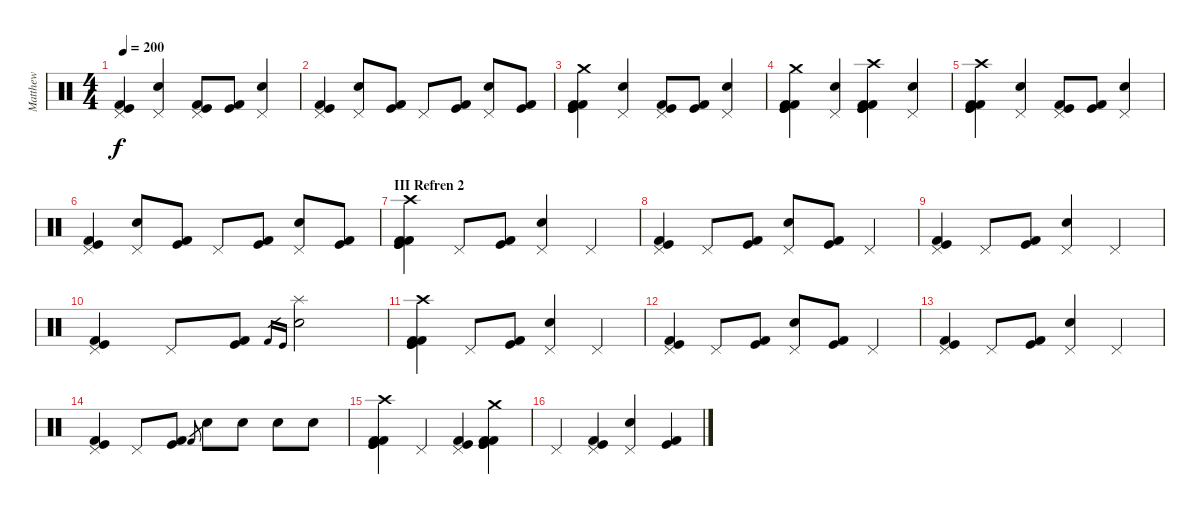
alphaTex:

\track ("Matthew" "Matthew") {instrument percussion}
\staff {score}
\articulation defaults
\ts (4 4)
\tempo 200
\clef neutral
\ks c
("Kick (hit)" "Kick (hit) 2" "Pedal Hi-Hat (hit)").4{dy f} ("Snare (hit) 2" "Pedal Hi-Hat (hit)").4 ("Kick (hit) 2" "Pedal Hi-Hat (hit)" "Kick (hit)").8 ("Kick (hit)" "Kick (hit) 2").8 ("Snare (hit) 2" "Pedal Hi-Hat (hit)").4 |
("Kick (hit) 2" "Kick (hit)" "Pedal Hi-Hat (hit)").4 ("Snare (hit) 2" "Pedal Hi-Hat (hit)").8 ("Kick (hit) 2" "Kick (hit)").8 "Pedal Hi-Hat (hit)".8 ("Kick (hit) 2" "Kick (hit)").8 ("Snare (hit) 2" "Pedal Hi-Hat (hit)").8 ("Kick (hit)" "Kick (hit) 2").8 |
("Kick (hit)" "Kick (hit) 2" "Kick (hit)" "Kick (hit) 2" "Crash medium (hit)").4 ("Snare (hit) 2" "Pedal Hi-Hat (hit)").4 ("Kick (hit) 2" "Pedal Hi-Hat (hit)" "Kick (hit)").8 ("Kick (hit)" "Kick (hit) 2").8 ("Snare (hit) 2" "Pedal Hi-Hat (hit)").4 |
("Kick (hit)" "Kick (hit) 2" "Kick (hit)" "Kick (hit) 2" "Crash medium (hit)").4 ("Snare (hit) 2" "Pedal Hi-Hat (hit)").4 ("Kick (hit) 2" "Crash high (hit)" "Kick (hit)" "Kick (hit) 2" "Kick (hit)").4 ("Snare (hit) 2" "Pedal Hi-Hat (hit)").4 |
("Kick (hit)" "Kick (hit) 2" "Kick (hit)" "Kick (hit) 2" "Crash high (hit)").4 ("Snare (hit) 2" "Pedal Hi-Hat (hit)").4 ("Kick (hit) 2" "Pedal Hi-Hat (hit)" "Kick (hit)").8 ("Kick (hit)" "Kick (hit) 2").8 ("Snare (hit) 2" "Pedal Hi-Hat (hit)").4 |
("Kick (hit) 2" "Kick (hit)" "Pedal Hi-Hat (hit)").4 ("Snare (hit) 2" "Pedal Hi-Hat (hit)").8 ("Kick (hit) 2" "Kick (hit)").8 "Pedal Hi-Hat (hit)".8 ("Kick (hit) 2" "Kick (hit)").8 ("Snare (hit) 2" "Pedal Hi-Hat (hit)").8 ("Kick (hit)" "Kick (hit) 2").8 |
\section ("" "III Refren 2")
("Kick (hit) 2" "Kick (hit)" "Kick (hit) 2" "Kick (hit)" "Crash high (hit)").4 "Pedal Hi-Hat (hit)".8 ("Kick (hit) 2" "Kick (hit)").8 ("Pedal Hi-Hat (hit)" "Snare (hit) 2").4 "Pedal Hi-Hat (hit)".4 |
("Kick (hit) 2" "Kick (hit)" "Pedal Hi-Hat (hit)").4 "Pedal Hi-Hat (hit)".8 ("Kick (hit) 2" "Kick (hit)").8 ("Pedal Hi-Hat (hit)" "Snare (hit) 2").8 ("Kick (hit) 2" "Kick (hit)").8 "Pedal Hi-Hat (hit)".4 |
("Kick (hit) 2" "Kick (hit)" "Pedal Hi-Hat (hit)").4 "Pedal Hi-Hat (hit)".8 ("Kick (hit) 2" "Kick (hit)").8 ("Pedal Hi-Hat (hit)" "Snare (hit) 2").4 "Pedal Hi-Hat (hit)".4 |
("Kick (hit) 2" "Kick (hit)" "Pedal Hi-Hat (hit)").4 "Pedal Hi-Hat (hit)".8 ("Kick (hit) 2" "Kick (hit)").8 "Kick (hit) 2".16{gr} "Kick (hit)".16{gr} ("Snare (hit) 2" "Splash (hit)").2 |
("Kick (hit) 2" "Kick (hit)" "Kick (hit) 2" "Kick (hit)" "Crash high (hit)").4 "Pedal Hi-Hat (hit)".8 ("Kick (hit) 2" "Kick (hit)").8 ("Pedal Hi-Hat (hit)" "Snare (hit) 2").4 "Pedal Hi-Hat (hit)".4 |
("Kick (hit) 2" "Kick (hit)" "Pedal Hi-Hat (hit)").4 "Pedal Hi-Hat (hit)".8 ("Kick (hit) 2" "Kick (hit)").8 ("Pedal Hi-Hat (hit)" "Snare (hit) 2").8 ("Kick (hit) 2" "Kick (hit)").8 "Pedal Hi-Hat (hit)".4 |
("Kick (hit) 2" "Kick (hit)" "Pedal Hi-Hat (hit)").4 "Pedal Hi-Hat (hit)".8 ("Kick (hit) 2" "Kick (hit)").8 ("Pedal Hi-Hat (hit)" "Snare (hit) 2").4 "Pedal Hi-Hat (hit)".4 |
("Kick (hit) 2" "Kick (hit)" "Pedal Hi-Hat (hit)").4 "Pedal Hi-Hat (hit)".8 ("Kick (hit) 2" "Kick (hit)").8 "Kick (hit) 2".8{gr} "Snare (hit) 2".8 "Snare (hit) 2".8 "Snare (hit) 2".8 "Snare (hit) 2".8 |
("Kick (hit) 2" "Kick (hit)" "Kick (hit) 2" "Kick (hit)" "Crash high (hit)").4 "Pedal Hi-Hat (hit)".4 ("Pedal Hi-Hat (hit)" "Kick (hit)" "Kick (hit) 2").4 ("Kick (hit) 2" "Kick (hit)" "Kick (hit)" "Kick (hit) 2" "Crash medium (hit)").4 |
"Pedal Hi-Hat (hit)".4 ("Pedal Hi-Hat (hit)" "Kick (hit) 2" "Kick (hit)").4 ("Snare (hit) 2" "Pedal Hi-Hat (hit)").4 ("Kick (hit)" "Kick (hit) 2").4
